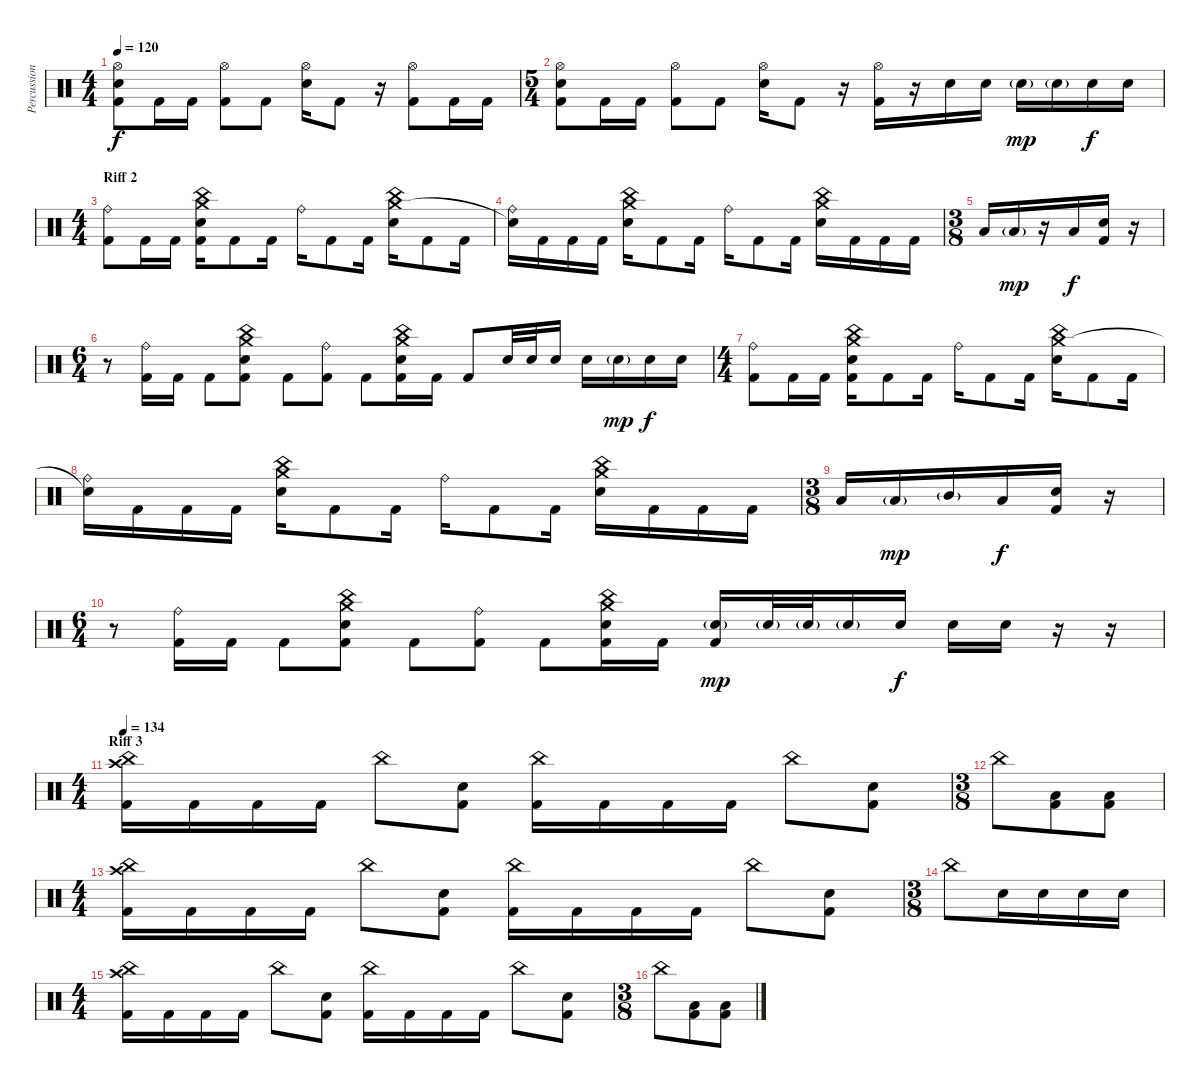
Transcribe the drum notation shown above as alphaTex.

\track ("Percussion" "Percussion") {instrument percussion}
\staff {score}
\articulation defaults
\ts (4 4)
\tempo 120
\clef neutral
\ks c
("Hi-Hat (open)" "Electric Snare (hit)" "Kick (hit) 2").8{dy f} "Kick (hit) 2".16 "Kick (hit) 2".16 ("Hi-Hat (open)" "Kick (hit) 2").8 "Kick (hit) 2".8 ("Hi-Hat (open)" "Electric Snare (hit)").16 "Kick (hit) 2".8 r.16 ("Hi-Hat (open)" "Kick (hit) 2").8 "Kick (hit) 2".16 "Kick (hit) 2".16 |
\ts (5 4)
("Hi-Hat (open)" "Electric Snare (hit)" "Kick (hit) 2").8 "Kick (hit) 2".16 "Kick (hit) 2".16 ("Hi-Hat (open)" "Kick (hit) 2").8 "Kick (hit) 2".8 ("Hi-Hat (open)" "Electric Snare (hit)").16 "Kick (hit) 2".8 r.16 ("Hi-Hat (open)" "Kick (hit) 2").16 r.16 "Electric Snare (hit)".16 "Electric Snare (hit)".16 "Electric Snare (hit)"{g}.16{dy mp} "Electric Snare (hit)"{g}.16 "Electric Snare (hit)".16{dy f} "Electric Snare (hit)".16 |
\ts (4 4)
\section ("" "Riff 2")
("Ride (bell)" "Kick (hit) 2").8 "Kick (hit) 2".16 "Kick (hit) 2".16 ("China (hit)" "Crash medium (hit)" "Electric Snare (hit)" "Kick (hit) 2").16 "Kick (hit) 2".8 "Kick (hit) 2".16 "Ride (bell)".16 "Kick (hit) 2".8 "Kick (hit) 2".16 ("China (hit)" "Crash medium (hit)" "Electric Snare (hit)").16 "Kick (hit) 2".8 "Kick (hit) 2".16 |
("Ride (bell)" "Snare (hit)"{t}).16 "Kick (hit) 2".16 "Kick (hit) 2".16 "Kick (hit) 2".16 ("China (hit)" "Crash medium (hit)" "Electric Snare (hit)").16 "Kick (hit) 2".8 "Kick (hit) 2".16 "Ride (bell)".16 "Kick (hit) 2".8 "Kick (hit) 2".16 ("China (hit)" "Crash medium (hit)" "Electric Snare (hit)").16 "Kick (hit) 2".16 "Kick (hit) 2".16 "Kick (hit) 2".16 |
\ts (3 8)
"Low Tom (hit)".16 "Low Floor Tom (hit)"{g}.16{dy mp} r.16 "Low Tom (hit)".16{dy f} ("Electric Snare (hit)" "Kick (hit) 2").16 r.16 |
\ts (6 4)
r.8 ("Ride (bell)" "Kick (hit) 2").16 "Kick (hit) 2".16 "Kick (hit) 2".8 ("China (hit)" "Crash medium (hit)" "Electric Snare (hit)" "Kick (hit) 2").8 "Kick (hit) 2".8 ("Ride (bell)" "Kick (hit) 2").8 "Kick (hit) 2".8 ("China (hit)" "Crash medium (hit)" "Electric Snare (hit)" "Kick (hit) 2").16 "Kick (hit) 2".16 "Kick (hit) 2".8 "Electric Snare (hit)".32 "Electric Snare (hit)".32 "Electric Snare (hit)".16 "Electric Snare (hit)".16 "Electric Snare (hit)"{g}.16{dy mp} "Electric Snare (hit)".16{dy f} "Electric Snare (hit)".16 |
\ts (4 4)
("Ride (bell)" "Kick (hit) 2").8 "Kick (hit) 2".16 "Kick (hit) 2".16 ("China (hit)" "Crash medium (hit)" "Electric Snare (hit)" "Kick (hit) 2").16 "Kick (hit) 2".8 "Kick (hit) 2".16 "Ride (bell)".16 "Kick (hit) 2".8 "Kick (hit) 2".16 ("China (hit)" "Crash medium (hit)" "Electric Snare (hit)").16 "Kick (hit) 2".8 "Kick (hit) 2".16 |
("Ride (bell)" "Snare (hit)"{t}).16 "Kick (hit) 2".16 "Kick (hit) 2".16 "Kick (hit) 2".16 ("China (hit)" "Crash medium (hit)" "Electric Snare (hit)").16 "Kick (hit) 2".8 "Kick (hit) 2".16 "Ride (bell)".16 "Kick (hit) 2".8 "Kick (hit) 2".16 ("China (hit)" "Crash medium (hit)" "Electric Snare (hit)").16 "Kick (hit) 2".16 "Kick (hit) 2".16 "Kick (hit) 2".16 |
\ts (3 8)
"Low Tom (hit)".16 "Low Floor Tom (hit)"{g}.16{dy mp} "Mid Tom (hit)"{g}.16 "Low Tom (hit)".16{dy f} ("Electric Snare (hit)" "Kick (hit) 2").16 r.16 |
\ts (6 4)
r.8 ("Ride (bell)" "Kick (hit) 2").16 "Kick (hit) 2".16 "Kick (hit) 2".8 ("China (hit)" "Crash medium (hit)" "Electric Snare (hit)" "Kick (hit) 2").8 "Kick (hit) 2".8 ("Ride (bell)" "Kick (hit) 2").8 "Kick (hit) 2".8 ("China (hit)" "Crash medium (hit)" "Electric Snare (hit)" "Kick (hit) 2").16 "Kick (hit) 2".16 ("Electric Snare (hit)"{g} "Kick (hit) 2").16{dy mp} "Electric Snare (hit)"{g}.32 "Electric Snare (hit)"{g}.32 "Electric Snare (hit)"{g}.16 "Electric Snare (hit)".16{dy f} "Electric Snare (hit)".16 "Electric Snare (hit)".16 r.16 r.16 |
\ts (4 4)
\section ("" "Riff 3")
\tempo 134
("China (hit)" "Crash high (hit)" "Kick (hit) 2").16 "Kick (hit) 2".16 "Kick (hit) 2".16 "Kick (hit) 2".16 "China (hit)".8 ("Electric Snare (hit)" "Kick (hit) 2").8 ("China (hit)" "Kick (hit) 2").16 "Kick (hit) 2".16 "Kick (hit) 2".16 "Kick (hit) 2".16 "China (hit)".8 ("Electric Snare (hit)" "Kick (hit) 2").8 |
\ts (3 8)
"China (hit)".8 ("Low Floor Tom (hit)" "Kick (hit) 2").8 ("Low Floor Tom (hit)" "Kick (hit) 2").8 |
\ts (4 4)
("China (hit)" "Crash high (hit)" "Kick (hit) 2").16 "Kick (hit) 2".16 "Kick (hit) 2".16 "Kick (hit) 2".16 "China (hit)".8 ("Electric Snare (hit)" "Kick (hit) 2").8 ("China (hit)" "Kick (hit) 2").16 "Kick (hit) 2".16 "Kick (hit) 2".16 "Kick (hit) 2".16 "China (hit)".8 ("Electric Snare (hit)" "Kick (hit) 2").8 |
\ts (3 8)
"China (hit)".8 "Electric Snare (hit)".16 "Electric Snare (hit)".16 "Electric Snare (hit)".16 "Electric Snare (hit)".16 |
\ts (4 4)
("China (hit)" "Crash high (hit)" "Kick (hit) 2").16 "Kick (hit) 2".16 "Kick (hit) 2".16 "Kick (hit) 2".16 "China (hit)".8 ("Electric Snare (hit)" "Kick (hit) 2").8 ("China (hit)" "Kick (hit) 2").16 "Kick (hit) 2".16 "Kick (hit) 2".16 "Kick (hit) 2".16 "China (hit)".8 ("Electric Snare (hit)" "Kick (hit) 2").8 |
\ts (3 8)
"China (hit)".8 ("Low Floor Tom (hit)" "Kick (hit) 2").8 ("Low Floor Tom (hit)" "Kick (hit) 2").8
